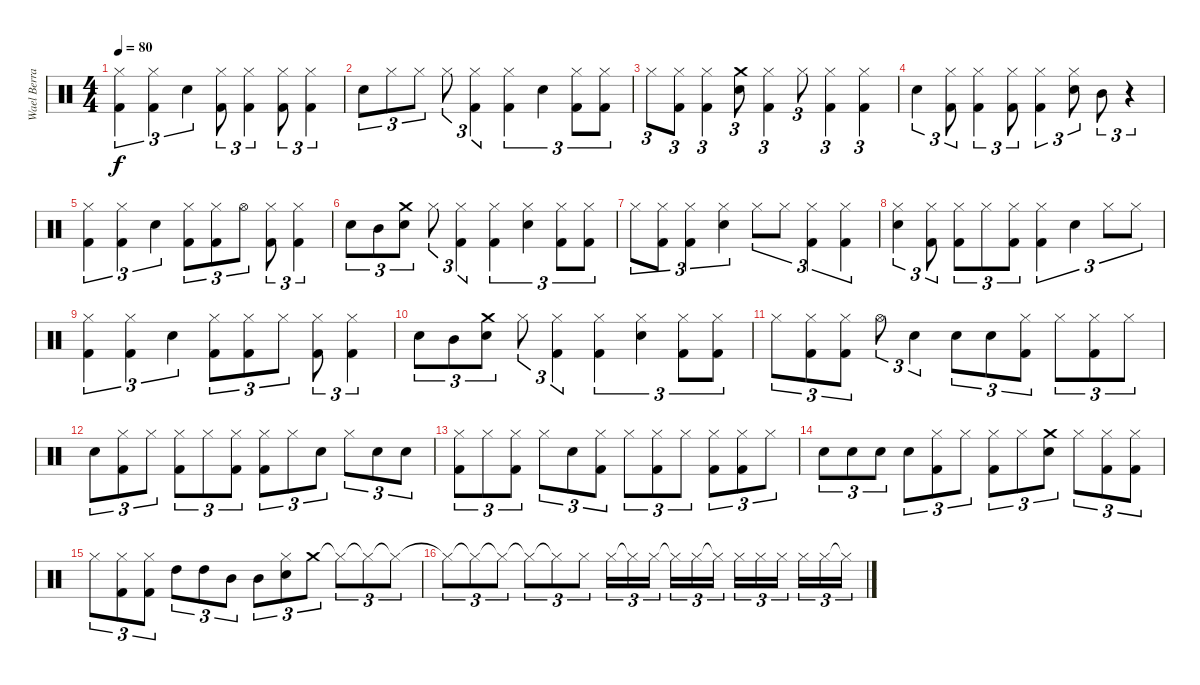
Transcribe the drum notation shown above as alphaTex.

\track ("Wael Berrais" "Wael Berra") {instrument percussion}
\staff {score}
\articulation defaults
\ts (4 4)
\tempo 80
\clef neutral
\ks c
("Kick (hit) 2" "Hi-Hat (closed)").4{tu (3 2) dy f} ("Hi-Hat (closed)" "Kick (hit) 2").4{tu (3 2)} "Electric Snare (hit)".4{tu (3 2)} ("Kick (hit) 2" "Hi-Hat (closed)").8{tu (3 2)} ("Hi-Hat (closed)" "Kick (hit) 2").4{tu (3 2)} ("Hi-Hat (closed)" "Kick (hit) 2").8{tu (3 2)} ("Hi-Hat (closed)" "Kick (hit) 2").4{tu (3 2)} |
"Electric Snare (hit)".8{tu (3 2)} "Hi-Hat (closed)".8{tu (3 2)} "Hi-Hat (closed)".8{tu (3 2)} "Hi-Hat (closed)".8{tu (3 2)} ("Hi-Hat (closed)" "Kick (hit) 2").4{tu (3 2)} ("Hi-Hat (closed)" "Kick (hit) 2").4{tu (3 2)} "Electric Snare (hit)".4{tu (3 2)} ("Kick (hit) 2" "Hi-Hat (closed)").8{tu (3 2)} ("Kick (hit) 2" "Hi-Hat (closed)").8{tu (3 2)} |
"Hi-Hat (closed)".8{tu (3 2)} ("Hi-Hat (closed)" "Kick (hit) 2").8{tu (3 2)} ("Hi-Hat (closed)" "Kick (hit) 2").4{tu (3 2)} ("Electric Snare (hit)" "Crash medium (hit)").8{tu (3 2)} ("Hi-Hat (closed)" "Kick (hit) 2").4{tu (3 2)} "Hi-Hat (closed)".8{tu (3 2)} ("Hi-Hat (closed)" "Kick (hit) 2").4{tu (3 2)} ("Hi-Hat (closed)" "Kick (hit) 2").4{tu (3 2)} |
"Electric Snare (hit)".4{tu (3 2)} ("Kick (hit) 2" "Hi-Hat (closed)").8{tu (3 2)} ("Kick (hit) 2" "Hi-Hat (closed)").4{tu (3 2)} ("Kick (hit) 2" "Hi-Hat (closed)").8{tu (3 2)} ("Kick (hit) 2" "Hi-Hat (closed)").4{tu (3 2)} ("Electric Snare (hit)" "Hi-Hat (closed)").8{tu (3 2)} "Mid Tom (hit)".8{tu (3 2)} r.4{tu (3 2)} |
("Hi-Hat (closed)" "Kick (hit) 2").4{tu (3 2)} ("Hi-Hat (closed)" "Kick (hit) 2").4{tu (3 2)} "Electric Snare (hit)".4{tu (3 2)} ("Kick (hit) 2" "Hi-Hat (closed)").8{tu (3 2)} ("Kick (hit) 2" "Hi-Hat (closed)").8{tu (3 2)} "Hi-Hat (open)".8{tu (3 2)} ("Kick (hit) 2" "Hi-Hat (closed)").8{tu (3 2)} ("Kick (hit) 2" "Hi-Hat (closed)").4{tu (3 2)} |
"Electric Snare (hit)".8{tu (3 2)} "Mid Tom (hit)".8{tu (3 2)} ("Electric Snare (hit)" "Crash medium (hit)").8{tu (3 2)} "Hi-Hat (closed)".8{tu (3 2)} ("Hi-Hat (closed)" "Kick (hit) 2").4{tu (3 2)} ("Hi-Hat (closed)" "Kick (hit) 2").4{tu (3 2)} ("Electric Snare (hit)" "Hi-Hat (closed)").4{tu (3 2)} ("Hi-Hat (closed)" "Kick (hit) 2").8{tu (3 2)} ("Hi-Hat (closed)" "Kick (hit) 2").8{tu (3 2)} |
"Hi-Hat (closed)".8{tu (3 2)} ("Kick (hit) 2" "Hi-Hat (closed)").8{tu (3 2)} ("Kick (hit) 2" "Hi-Hat (closed)").4{tu (3 2)} ("Electric Snare (hit)" "Hi-Hat (closed)").4{tu (3 2)} "Hi-Hat (closed)".8{tu (3 2)} "Hi-Hat (closed)".8{tu (3 2)} ("Kick (hit) 2" "Hi-Hat (closed)").4{tu (3 2)} ("Kick (hit) 2" "Hi-Hat (closed)").4{tu (3 2)} |
("Hi-Hat (closed)" "Electric Snare (hit)").4{tu (3 2)} ("Kick (hit) 2" "Hi-Hat (closed)").8{tu (3 2)} ("Kick (hit) 2" "Hi-Hat (closed)").8{tu (3 2)} "Hi-Hat (closed)".8{tu (3 2)} ("Hi-Hat (closed)" "Kick (hit) 2").8{tu (3 2)} ("Hi-Hat (closed)" "Kick (hit) 2").4{tu (3 2)} "Electric Snare (hit)".4{tu (3 2)} "Hi-Hat (closed)".8{tu (3 2)} "Hi-Hat (closed)".8{tu (3 2)} |
("Hi-Hat (closed)" "Kick (hit) 2").4{tu (3 2)} ("Hi-Hat (closed)" "Kick (hit) 2").4{tu (3 2)} "Electric Snare (hit)".4{tu (3 2)} ("Kick (hit) 2" "Hi-Hat (closed)").8{tu (3 2)} ("Kick (hit) 2" "Hi-Hat (closed)").8{tu (3 2)} "Hi-Hat (closed)".8{tu (3 2)} ("Kick (hit) 2" "Hi-Hat (closed)").8{tu (3 2)} ("Kick (hit) 2" "Hi-Hat (closed)").4{tu (3 2)} |
"Electric Snare (hit)".8{tu (3 2)} "Mid Tom (hit)".8{tu (3 2)} ("Electric Snare (hit)" "Crash medium (hit)").8{tu (3 2)} "Hi-Hat (closed)".8{tu (3 2)} ("Hi-Hat (closed)" "Kick (hit) 2").4{tu (3 2)} ("Hi-Hat (closed)" "Kick (hit) 2").4{tu (3 2)} ("Electric Snare (hit)" "Hi-Hat (closed)").4{tu (3 2)} ("Hi-Hat (closed)" "Kick (hit) 2").8{tu (3 2)} ("Hi-Hat (closed)" "Kick (hit) 2").8{tu (3 2)} |
"Hi-Hat (closed)".8{tu (3 2)} ("Kick (hit) 2" "Hi-Hat (closed)").8{tu (3 2)} ("Kick (hit) 2" "Hi-Hat (closed)").8{tu (3 2)} "Hi-Hat (open)".8{tu (3 2)} "Electric Snare (hit)".4{tu (3 2)} "Electric Snare (hit)".8{tu (3 2)} "Electric Snare (hit)".8{tu (3 2)} ("Hi-Hat (closed)" "Kick (hit) 2").8{tu (3 2)} "Hi-Hat (closed)".8{tu (3 2)} ("Hi-Hat (closed)" "Kick (hit) 2").8{tu (3 2)} "Hi-Hat (closed)".8{tu (3 2)} |
"Electric Snare (hit)".8{tu (3 2)} ("Hi-Hat (closed)" "Kick (hit) 2").8{tu (3 2)} "Hi-Hat (closed)".8{tu (3 2)} ("Hi-Hat (closed)" "Kick (hit) 2").8{tu (3 2)} "Hi-Hat (closed)".8{tu (3 2)} ("Hi-Hat (closed)" "Kick (hit) 2").8{tu (3 2)} ("Hi-Hat (closed)" "Kick (hit) 2").8{tu (3 2)} "Hi-Hat (closed)".8{tu (3 2)} "Electric Snare (hit)".8{tu (3 2)} "Hi-Hat (closed)".8{tu (3 2)} "Electric Snare (hit)".8{tu (3 2)} "Electric Snare (hit)".8{tu (3 2)} |
("Hi-Hat (closed)" "Kick (hit) 2").8{tu (3 2)} "Hi-Hat (closed)".8{tu (3 2)} ("Hi-Hat (closed)" "Kick (hit) 2").8{tu (3 2)} "Hi-Hat (closed)".8{tu (3 2)} "Electric Snare (hit)".8{tu (3 2)} ("Hi-Hat (closed)" "Kick (hit) 2").8{tu (3 2)} "Hi-Hat (closed)".8{tu (3 2)} ("Kick (hit) 2" "Hi-Hat (closed)").8{tu (3 2)} "Hi-Hat (closed)".8{tu (3 2)} ("Hi-Hat (closed)" "Kick (hit) 2").8{tu (3 2)} ("Hi-Hat (closed)" "Kick (hit) 2").8{tu (3 2)} "Hi-Hat (closed)".8{tu (3 2)} |
"Electric Snare (hit)".8{tu (3 2)} "Electric Snare (hit)".8{tu (3 2)} "Electric Snare (hit)".8{tu (3 2)} "Electric Snare (hit)".8{tu (3 2)} ("Hi-Hat (closed)" "Kick (hit) 2").8{tu (3 2)} "Hi-Hat (closed)".8{tu (3 2)} ("Hi-Hat (closed)" "Kick (hit) 2").8{tu (3 2)} "Hi-Hat (closed)".8{tu (3 2)} ("Crash medium (hit)" "Electric Snare (hit)").8{tu (3 2)} "Hi-Hat (closed)".8{tu (3 2)} ("Hi-Hat (closed)" "Kick (hit) 2").8{tu (3 2)} ("Hi-Hat (closed)" "Kick (hit) 2").8{tu (3 2)} |
"Hi-Hat (closed)".8{tu (3 2)} ("Hi-Hat (closed)" "Kick (hit) 2").8{tu (3 2)} ("Hi-Hat (closed)" "Kick (hit) 2").8{tu (3 2)} "High Tom (hit)".8{tu (3 2)} "High Tom (hit)".8{tu (3 2)} "Mid Tom (hit)".8{tu (3 2)} "Mid Tom (hit)".8{tu (3 2)} ("Hi-Hat (closed)" "Electric Snare (hit)").8{tu (3 2)} "Crash medium (hit)".8{tu (3 2)} "Hi-Hat (closed)"{t}.8{tu (3 2)} "Hi-Hat (closed)"{t}.8{tu (3 2)} "Hi-Hat (closed)"{t}.8{tu (3 2)} |
"Hi-Hat (closed)"{t}.8{tu (3 2)} "Hi-Hat (closed)"{t}.8{tu (3 2)} "Hi-Hat (closed)"{t}.8{tu (3 2)} "Hi-Hat (closed)"{t}.8{tu (3 2)} "Hi-Hat (closed)"{t}.8{tu (3 2)} "Hi-Hat (closed)".8{tu (3 2)} "Hi-Hat (closed)".16{tu (3 2)} "Hi-Hat (closed)"{t}.16{tu (3 2)} "Hi-Hat (closed)".16{tu (3 2)} "Hi-Hat (closed)"{t}.16{tu (3 2)} "Hi-Hat (closed)".16{tu (3 2)} "Hi-Hat (closed)"{t}.16{tu (3 2)} "Hi-Hat (closed)".16{tu (3 2)} "Hi-Hat (closed)".16{tu (3 2)} "Hi-Hat (closed)".16{tu (3 2)} "Hi-Hat (closed)".16{tu (3 2)} "Hi-Hat (closed)".16{tu (3 2)} "Hi-Hat (closed)"{t}.16{tu (3 2)}
